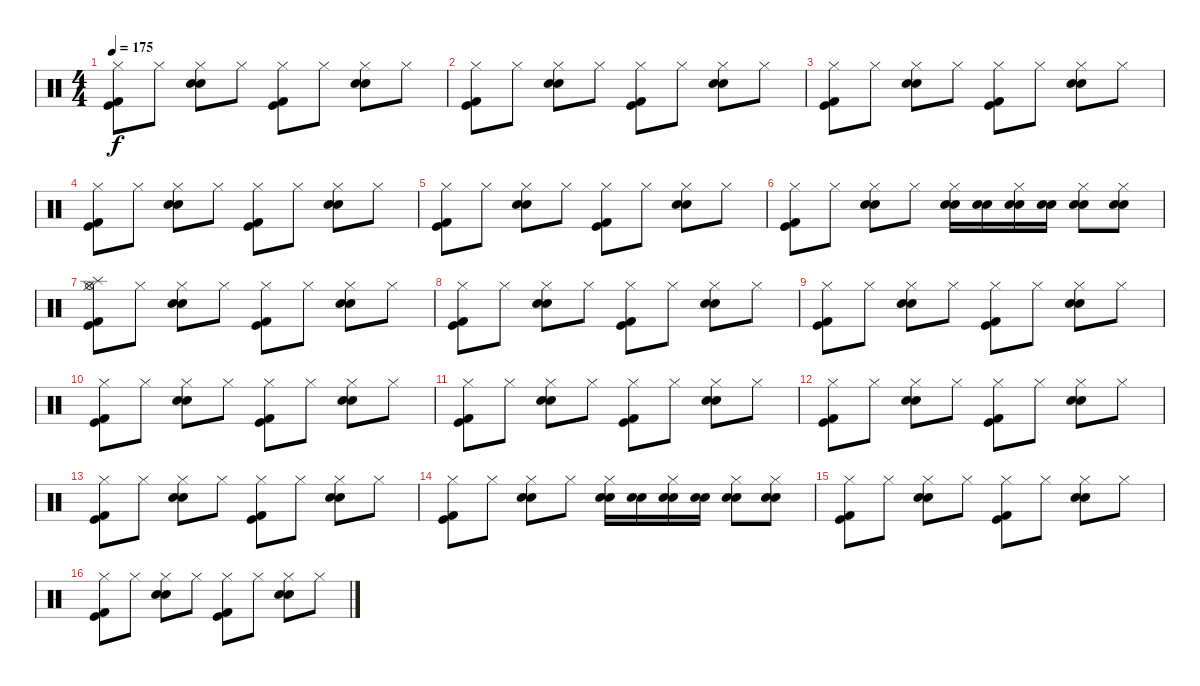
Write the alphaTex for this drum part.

\track "" {instrument percussion}
\staff {score}
\articulation defaults
\ts (4 4)
\tempo 175
\clef neutral
\ks c
("Hi-Hat (closed)" "Kick (hit)" "Kick (hit) 2").8{dy f} "Hi-Hat (closed)".8 ("Electric Snare (hit)" "Snare (hit) 2" "Hi-Hat (closed)").8 "Hi-Hat (closed)".8 ("Hi-Hat (closed)" "Kick (hit)" "Kick (hit) 2").8 "Hi-Hat (closed)".8 ("Electric Snare (hit)" "Snare (hit) 2" "Hi-Hat (closed)").8 "Hi-Hat (closed)".8 |
("Hi-Hat (closed)" "Kick (hit)" "Kick (hit) 2").8 "Hi-Hat (closed)".8 ("Electric Snare (hit)" "Snare (hit) 2" "Hi-Hat (closed)").8 "Hi-Hat (closed)".8 ("Hi-Hat (closed)" "Kick (hit)" "Kick (hit) 2").8 "Hi-Hat (closed)".8 ("Electric Snare (hit)" "Snare (hit) 2" "Hi-Hat (closed)").8 "Hi-Hat (closed)".8 |
("Hi-Hat (closed)" "Kick (hit)" "Kick (hit) 2").8 "Hi-Hat (closed)".8 ("Electric Snare (hit)" "Snare (hit) 2" "Hi-Hat (closed)").8 "Hi-Hat (closed)".8 ("Hi-Hat (closed)" "Kick (hit)" "Kick (hit) 2").8 "Hi-Hat (closed)".8 ("Electric Snare (hit)" "Snare (hit) 2" "Hi-Hat (closed)").8 "Hi-Hat (closed)".8 |
("Hi-Hat (closed)" "Kick (hit)" "Kick (hit) 2").8 "Hi-Hat (closed)".8 ("Electric Snare (hit)" "Snare (hit) 2" "Hi-Hat (closed)").8 "Hi-Hat (closed)".8 ("Hi-Hat (closed)" "Kick (hit)" "Kick (hit) 2").8 "Hi-Hat (closed)".8 ("Electric Snare (hit)" "Snare (hit) 2" "Hi-Hat (closed)").8 "Hi-Hat (closed)".8 |
("Hi-Hat (closed)" "Kick (hit)" "Kick (hit) 2").8 "Hi-Hat (closed)".8 ("Electric Snare (hit)" "Snare (hit) 2" "Hi-Hat (closed)").8 "Hi-Hat (closed)".8 ("Hi-Hat (closed)" "Kick (hit)" "Kick (hit) 2").8 "Hi-Hat (closed)".8 ("Electric Snare (hit)" "Snare (hit) 2" "Hi-Hat (closed)").8 "Hi-Hat (closed)".8 |
("Hi-Hat (closed)" "Kick (hit)" "Kick (hit) 2").8 "Hi-Hat (closed)".8 ("Electric Snare (hit)" "Snare (hit) 2" "Hi-Hat (closed)").8 "Hi-Hat (closed)".8 ("Hi-Hat (closed)" "Electric Snare (hit)" "Snare (hit) 2").16 ("Snare (hit) 2" "Electric Snare (hit)").16 ("Snare (hit) 2" "Electric Snare (hit)" "Hi-Hat (closed)").16 ("Snare (hit) 2" "Electric Snare (hit)").16 ("Hi-Hat (closed)" "Snare (hit) 2" "Electric Snare (hit)").8 ("Hi-Hat (closed)" "Electric Snare (hit)" "Snare (hit) 2").8 |
("Kick (hit) 2" "Kick (hit)" "Hi-Hat (closed)" "Splash (hit)" "Hi-Hat (open)").8 "Hi-Hat (closed)".8 ("Electric Snare (hit)" "Snare (hit) 2" "Hi-Hat (closed)").8 "Hi-Hat (closed)".8 ("Hi-Hat (closed)" "Kick (hit)" "Kick (hit) 2").8 "Hi-Hat (closed)".8 ("Electric Snare (hit)" "Snare (hit) 2" "Hi-Hat (closed)").8 "Hi-Hat (closed)".8 |
("Hi-Hat (closed)" "Kick (hit)" "Kick (hit) 2").8 "Hi-Hat (closed)".8 ("Electric Snare (hit)" "Snare (hit) 2" "Hi-Hat (closed)").8 "Hi-Hat (closed)".8 ("Hi-Hat (closed)" "Kick (hit)" "Kick (hit) 2").8 "Hi-Hat (closed)".8 ("Electric Snare (hit)" "Snare (hit) 2" "Hi-Hat (closed)").8 "Hi-Hat (closed)".8 |
("Hi-Hat (closed)" "Kick (hit)" "Kick (hit) 2").8 "Hi-Hat (closed)".8 ("Electric Snare (hit)" "Snare (hit) 2" "Hi-Hat (closed)").8 "Hi-Hat (closed)".8 ("Hi-Hat (closed)" "Kick (hit)" "Kick (hit) 2").8 "Hi-Hat (closed)".8 ("Electric Snare (hit)" "Snare (hit) 2" "Hi-Hat (closed)").8 "Hi-Hat (closed)".8 |
("Hi-Hat (closed)" "Kick (hit)" "Kick (hit) 2").8 "Hi-Hat (closed)".8 ("Electric Snare (hit)" "Snare (hit) 2" "Hi-Hat (closed)").8 "Hi-Hat (closed)".8 ("Hi-Hat (closed)" "Kick (hit)" "Kick (hit) 2").8 "Hi-Hat (closed)".8 ("Electric Snare (hit)" "Snare (hit) 2" "Hi-Hat (closed)").8 "Hi-Hat (closed)".8 |
("Kick (hit) 2" "Kick (hit)" "Hi-Hat (closed)").8 "Hi-Hat (closed)".8 ("Electric Snare (hit)" "Snare (hit) 2" "Hi-Hat (closed)").8 "Hi-Hat (closed)".8 ("Hi-Hat (closed)" "Kick (hit)" "Kick (hit) 2").8 "Hi-Hat (closed)".8 ("Electric Snare (hit)" "Snare (hit) 2" "Hi-Hat (closed)").8 "Hi-Hat (closed)".8 |
("Hi-Hat (closed)" "Kick (hit)" "Kick (hit) 2").8 "Hi-Hat (closed)".8 ("Electric Snare (hit)" "Snare (hit) 2" "Hi-Hat (closed)").8 "Hi-Hat (closed)".8 ("Hi-Hat (closed)" "Kick (hit)" "Kick (hit) 2").8 "Hi-Hat (closed)".8 ("Electric Snare (hit)" "Snare (hit) 2" "Hi-Hat (closed)").8 "Hi-Hat (closed)".8 |
("Hi-Hat (closed)" "Kick (hit)" "Kick (hit) 2").8 "Hi-Hat (closed)".8 ("Electric Snare (hit)" "Snare (hit) 2" "Hi-Hat (closed)").8 "Hi-Hat (closed)".8 ("Hi-Hat (closed)" "Kick (hit)" "Kick (hit) 2").8 "Hi-Hat (closed)".8 ("Electric Snare (hit)" "Snare (hit) 2" "Hi-Hat (closed)").8 "Hi-Hat (closed)".8 |
("Hi-Hat (closed)" "Kick (hit)" "Kick (hit) 2").8 "Hi-Hat (closed)".8 ("Electric Snare (hit)" "Snare (hit) 2" "Hi-Hat (closed)").8 "Hi-Hat (closed)".8 ("Hi-Hat (closed)" "Snare (hit) 2" "Electric Snare (hit)").16 ("Snare (hit) 2" "Electric Snare (hit)").16 ("Snare (hit) 2" "Electric Snare (hit)" "Hi-Hat (closed)").16 ("Snare (hit) 2" "Electric Snare (hit)").16 ("Hi-Hat (closed)" "Snare (hit) 2" "Electric Snare (hit)").8 ("Electric Snare (hit)" "Snare (hit) 2" "Hi-Hat (closed)").8 |
("Kick (hit) 2" "Kick (hit)" "Hi-Hat (closed)").8 "Hi-Hat (closed)".8 ("Electric Snare (hit)" "Snare (hit) 2" "Hi-Hat (closed)").8 "Hi-Hat (closed)".8 ("Hi-Hat (closed)" "Kick (hit)" "Kick (hit) 2").8 "Hi-Hat (closed)".8 ("Electric Snare (hit)" "Snare (hit) 2" "Hi-Hat (closed)").8 "Hi-Hat (closed)".8 |
("Hi-Hat (closed)" "Kick (hit)" "Kick (hit) 2").8 "Hi-Hat (closed)".8 ("Electric Snare (hit)" "Snare (hit) 2" "Hi-Hat (closed)").8 "Hi-Hat (closed)".8 ("Hi-Hat (closed)" "Kick (hit)" "Kick (hit) 2").8 "Hi-Hat (closed)".8 ("Electric Snare (hit)" "Snare (hit) 2" "Hi-Hat (closed)").8 "Hi-Hat (closed)".8
